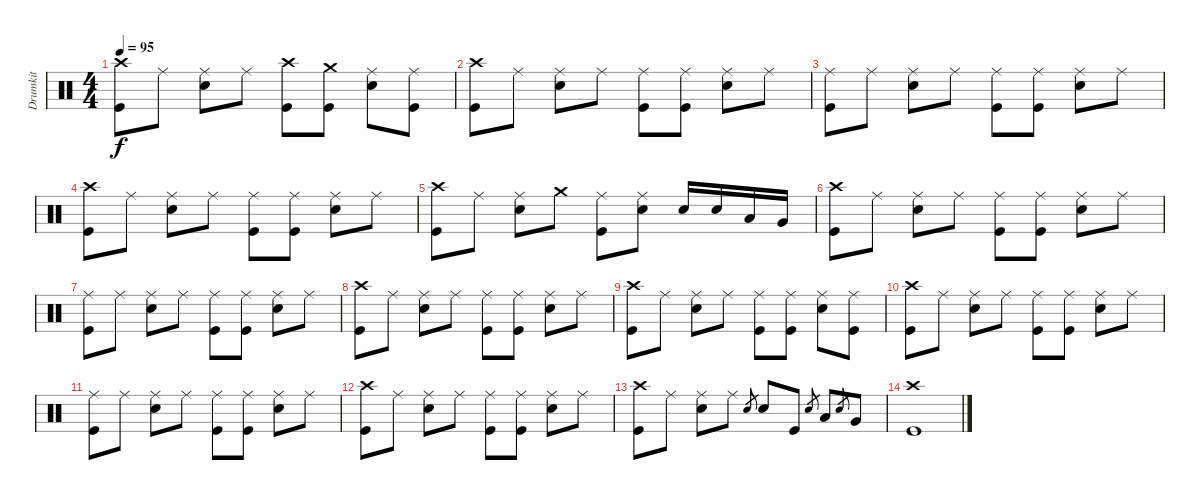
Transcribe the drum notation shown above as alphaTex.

\track ("Drumkit" "Drumkit") {instrument percussion}
\staff {score}
\articulation defaults
\ts (4 4)
\tempo 95
\clef neutral
\ks c
("Kick (hit)" "Crash high (hit)").8{dy f} "Ride (middle)".8 ("Snare (hit) 2" "Ride (middle)").8 "Ride (middle)".8 ("Kick (hit)" "Crash high (hit)").8 ("Kick (hit)" "Crash medium (hit)").8 ("Snare (hit) 2" "Ride (middle)").8 ("Ride (middle)" "Kick (hit)").8 |
("Kick (hit)" "Crash high (hit)").8 "Ride (middle)".8 ("Snare (hit) 2" "Ride (middle)").8 "Ride (middle)".8 ("Kick (hit)" "Ride (middle)").8 ("Kick (hit)" "Ride (middle)").8 ("Snare (hit) 2" "Ride (middle)").8 "Ride (middle)".8 |
("Kick (hit)" "Ride (middle)").8 "Ride (middle)".8 ("Snare (hit) 2" "Ride (middle)").8 "Ride (middle)".8 ("Kick (hit)" "Ride (middle)").8 ("Kick (hit)" "Ride (middle)").8 ("Snare (hit) 2" "Ride (middle)").8 "Ride (middle)".8 |
("Kick (hit)" "Crash high (hit)").8 "Ride (middle)".8 ("Snare (hit) 2" "Ride (middle)").8 "Ride (middle)".8 ("Kick (hit)" "Ride (middle)").8 ("Kick (hit)" "Ride (middle)").8 ("Snare (hit) 2" "Ride (middle)").8 "Ride (middle)".8 |
("Kick (hit)" "Crash high (hit)").8 "Ride (middle)".8 ("Snare (hit) 2" "Ride (middle)").8 "Crash medium (hit)".8 ("Kick (hit)" "Ride (middle)").8 ("Snare (hit) 2" "Ride (middle)").8 "Snare (hit) 2".16 "Snare (hit) 2".16 "Low Tom (hit)".16 "Very Low Tom (hit)".16 |
("Kick (hit)" "Crash high (hit)").8 "Ride (middle)".8 ("Snare (hit) 2" "Ride (middle)").8 "Ride (middle)".8 ("Kick (hit)" "Ride (middle)").8 ("Kick (hit)" "Ride (middle)").8 ("Snare (hit) 2" "Ride (middle)").8 "Ride (middle)".8 |
("Kick (hit)" "Ride (middle)").8 "Ride (middle)".8 ("Snare (hit) 2" "Ride (middle)").8 "Ride (middle)".8 ("Kick (hit)" "Ride (middle)").8 ("Kick (hit)" "Ride (middle)").8 ("Snare (hit) 2" "Ride (middle)").8 "Ride (middle)".8 |
("Kick (hit)" "Crash high (hit)").8 "Ride (middle)".8 ("Snare (hit) 2" "Ride (middle)").8 "Ride (middle)".8 ("Kick (hit)" "Ride (middle)").8 ("Kick (hit)" "Ride (middle)").8 ("Snare (hit) 2" "Ride (middle)").8 "Ride (middle)".8 |
("Kick (hit)" "Crash high (hit)").8 "Ride (middle)".8 ("Snare (hit) 2" "Ride (middle)").8 "Ride (middle)".8 ("Kick (hit)" "Ride (middle)").8 ("Kick (hit)" "Ride (middle)").8 ("Snare (hit) 2" "Ride (middle)").8 ("Ride (middle)" "Kick (hit)").8 |
("Kick (hit)" "Crash high (hit)").8 "Ride (middle)".8 ("Snare (hit) 2" "Ride (middle)").8 "Ride (middle)".8 ("Kick (hit)" "Ride (middle)").8 ("Kick (hit)" "Ride (middle)").8 ("Snare (hit) 2" "Ride (middle)").8 "Ride (middle)".8 |
("Kick (hit)" "Ride (middle)").8 "Ride (middle)".8 ("Snare (hit) 2" "Ride (middle)").8 "Ride (middle)".8 ("Kick (hit)" "Ride (middle)").8 ("Kick (hit)" "Ride (middle)").8 ("Snare (hit) 2" "Ride (middle)").8 "Ride (middle)".8 |
("Kick (hit)" "Crash high (hit)").8 "Ride (middle)".8 ("Snare (hit) 2" "Ride (middle)").8 "Ride (middle)".8 ("Kick (hit)" "Ride (middle)").8 ("Kick (hit)" "Ride (middle)").8 ("Snare (hit) 2" "Ride (middle)").8 "Ride (middle)".8 |
("Kick (hit)" "Crash high (hit)").8 "Ride (middle)".8 ("Snare (hit) 2" "Ride (middle)").8 "Ride (middle)".8 "Snare (hit)".8{gr} "Snare (hit) 2".8 "Kick (hit)".8 "Snare (hit)".8{gr} "Low Tom (hit)".8 "Snare (hit)".8{gr} "Very Low Tom (hit)".8 |
("Crash high (hit)" "Kick (hit)").1
